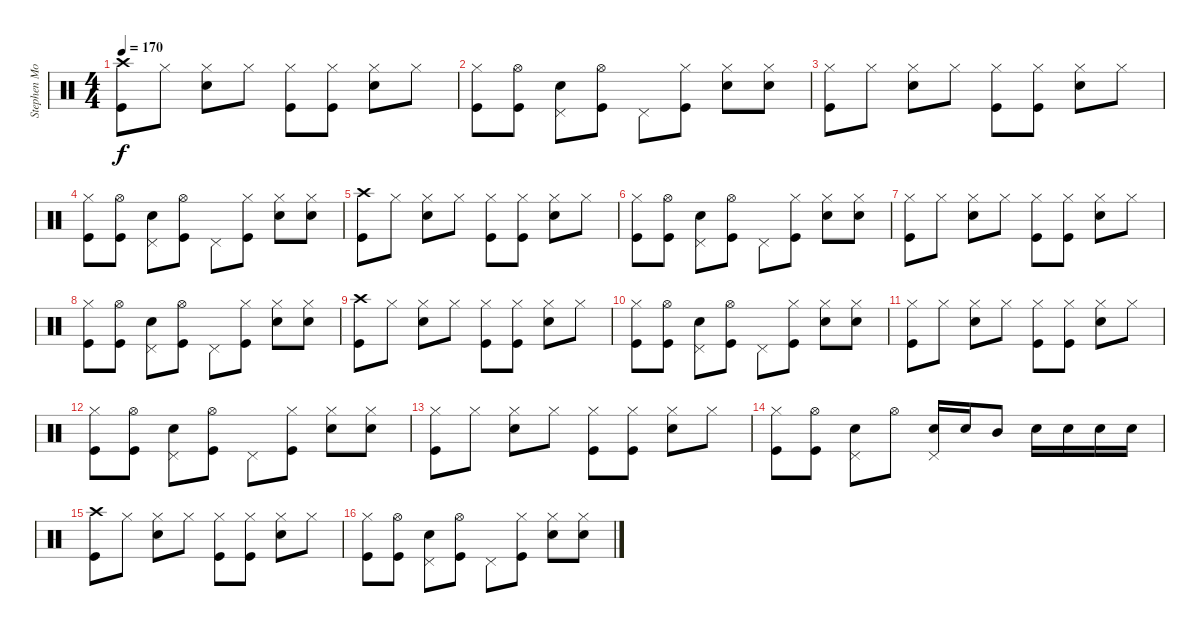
\track ("Stephen Morris (Drums)" "Stephen Mo") {instrument percussion}
\staff {score}
\articulation defaults
\ts (4 4)
\tempo 170
\clef neutral
\ks c
("Crash high (hit)" "Kick (hit)").8{dy f} "Hi-Hat (closed)".8 ("Hi-Hat (closed)" "Electric Snare (hit)").8 "Hi-Hat (closed)".8 ("Hi-Hat (closed)" "Kick (hit)").8 ("Hi-Hat (closed)" "Kick (hit)").8 ("Hi-Hat (closed)" "Electric Snare (hit)").8 "Hi-Hat (closed)".8 |
("Hi-Hat (closed)" "Kick (hit)").8 ("Hi-Hat (open)" "Kick (hit)").8 ("Pedal Hi-Hat (hit)" "Electric Snare (hit)").8 ("Hi-Hat (open)" "Kick (hit)").8 "Pedal Hi-Hat (hit)".8 ("Hi-Hat (closed)" "Kick (hit)").8 ("Hi-Hat (closed)" "Electric Snare (hit)").8 ("Hi-Hat (closed)" "Electric Snare (hit)").8 |
("Hi-Hat (closed)" "Kick (hit)").8 "Hi-Hat (closed)".8 ("Hi-Hat (closed)" "Electric Snare (hit)").8 "Hi-Hat (closed)".8 ("Hi-Hat (closed)" "Kick (hit)").8 ("Hi-Hat (closed)" "Kick (hit)").8 ("Hi-Hat (closed)" "Electric Snare (hit)").8 "Hi-Hat (closed)".8 |
("Hi-Hat (closed)" "Kick (hit)").8 ("Hi-Hat (open)" "Kick (hit)").8 ("Pedal Hi-Hat (hit)" "Electric Snare (hit)").8 ("Hi-Hat (open)" "Kick (hit)").8 "Pedal Hi-Hat (hit)".8 ("Hi-Hat (closed)" "Kick (hit)").8 ("Hi-Hat (closed)" "Electric Snare (hit)").8 ("Hi-Hat (closed)" "Electric Snare (hit)").8 |
("Crash high (hit)" "Kick (hit)").8 "Hi-Hat (closed)".8 ("Hi-Hat (closed)" "Electric Snare (hit)").8 "Hi-Hat (closed)".8 ("Hi-Hat (closed)" "Kick (hit)").8 ("Hi-Hat (closed)" "Kick (hit)").8 ("Hi-Hat (closed)" "Electric Snare (hit)").8 "Hi-Hat (closed)".8 |
("Hi-Hat (closed)" "Kick (hit)").8 ("Hi-Hat (open)" "Kick (hit)").8 ("Pedal Hi-Hat (hit)" "Electric Snare (hit)").8 ("Hi-Hat (open)" "Kick (hit)").8 "Pedal Hi-Hat (hit)".8 ("Hi-Hat (closed)" "Kick (hit)").8 ("Hi-Hat (closed)" "Electric Snare (hit)").8 ("Hi-Hat (closed)" "Electric Snare (hit)").8 |
("Hi-Hat (closed)" "Kick (hit)").8 "Hi-Hat (closed)".8 ("Hi-Hat (closed)" "Electric Snare (hit)").8 "Hi-Hat (closed)".8 ("Hi-Hat (closed)" "Kick (hit)").8 ("Hi-Hat (closed)" "Kick (hit)").8 ("Hi-Hat (closed)" "Electric Snare (hit)").8 "Hi-Hat (closed)".8 |
("Hi-Hat (closed)" "Kick (hit)").8 ("Hi-Hat (open)" "Kick (hit)").8 ("Pedal Hi-Hat (hit)" "Electric Snare (hit)").8 ("Hi-Hat (open)" "Kick (hit)").8 "Pedal Hi-Hat (hit)".8 ("Hi-Hat (closed)" "Kick (hit)").8 ("Hi-Hat (closed)" "Electric Snare (hit)").8 ("Hi-Hat (closed)" "Electric Snare (hit)").8 |
("Crash high (hit)" "Kick (hit)").8 "Hi-Hat (closed)".8 ("Hi-Hat (closed)" "Electric Snare (hit)").8 "Hi-Hat (closed)".8 ("Hi-Hat (closed)" "Kick (hit)").8 ("Hi-Hat (closed)" "Kick (hit)").8 ("Hi-Hat (closed)" "Electric Snare (hit)").8 "Hi-Hat (closed)".8 |
("Hi-Hat (closed)" "Kick (hit)").8 ("Hi-Hat (open)" "Kick (hit)").8 ("Pedal Hi-Hat (hit)" "Electric Snare (hit)").8 ("Hi-Hat (open)" "Kick (hit)").8 "Pedal Hi-Hat (hit)".8 ("Hi-Hat (closed)" "Kick (hit)").8 ("Hi-Hat (closed)" "Electric Snare (hit)").8 ("Hi-Hat (closed)" "Electric Snare (hit)").8 |
("Hi-Hat (closed)" "Kick (hit)").8 "Hi-Hat (closed)".8 ("Hi-Hat (closed)" "Electric Snare (hit)").8 "Hi-Hat (closed)".8 ("Hi-Hat (closed)" "Kick (hit)").8 ("Hi-Hat (closed)" "Kick (hit)").8 ("Hi-Hat (closed)" "Electric Snare (hit)").8 "Hi-Hat (closed)".8 |
("Hi-Hat (closed)" "Kick (hit)").8 ("Hi-Hat (open)" "Kick (hit)").8 ("Pedal Hi-Hat (hit)" "Electric Snare (hit)").8 ("Hi-Hat (open)" "Kick (hit)").8 "Pedal Hi-Hat (hit)".8 ("Hi-Hat (closed)" "Kick (hit)").8 ("Hi-Hat (closed)" "Electric Snare (hit)").8 ("Hi-Hat (closed)" "Electric Snare (hit)").8 |
("Hi-Hat (closed)" "Kick (hit)").8 "Hi-Hat (closed)".8 ("Hi-Hat (closed)" "Electric Snare (hit)").8 "Hi-Hat (closed)".8 ("Hi-Hat (closed)" "Kick (hit)").8 ("Hi-Hat (closed)" "Kick (hit)").8 ("Hi-Hat (closed)" "Electric Snare (hit)").8 "Hi-Hat (closed)".8 |
("Hi-Hat (closed)" "Kick (hit)").8 ("Hi-Hat (open)" "Kick (hit)").8 ("Pedal Hi-Hat (hit)" "Electric Snare (hit)").8 "Hi-Hat (open)".8 ("Pedal Hi-Hat (hit)" "Electric Snare (hit)").16 "Electric Snare (hit)".16 "Mid Tom (hit)".8 "Electric Snare (hit)".16 "Electric Snare (hit)".16 "Electric Snare (hit)".16 "Electric Snare (hit)".16 |
("Crash high (hit)" "Kick (hit)").8 "Hi-Hat (closed)".8 ("Hi-Hat (closed)" "Electric Snare (hit)").8 "Hi-Hat (closed)".8 ("Hi-Hat (closed)" "Kick (hit)").8 ("Hi-Hat (closed)" "Kick (hit)").8 ("Hi-Hat (closed)" "Electric Snare (hit)").8 "Hi-Hat (closed)".8 |
("Hi-Hat (closed)" "Kick (hit)").8 ("Hi-Hat (open)" "Kick (hit)").8 ("Pedal Hi-Hat (hit)" "Electric Snare (hit)").8 ("Hi-Hat (open)" "Kick (hit)").8 "Pedal Hi-Hat (hit)".8 ("Hi-Hat (closed)" "Kick (hit)").8 ("Hi-Hat (closed)" "Electric Snare (hit)").8 ("Hi-Hat (closed)" "Electric Snare (hit)").8
